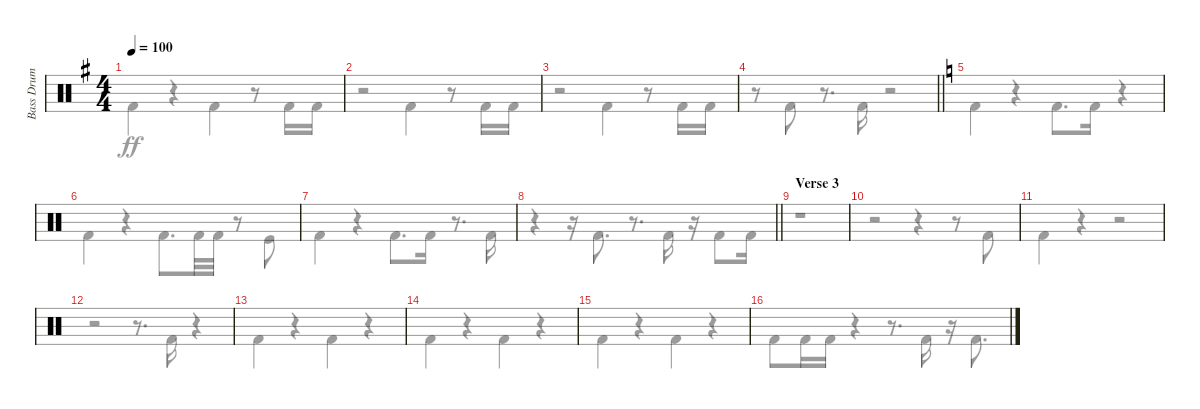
\track ("Bass Drum" "Bass Drum") {instrument percussion}
\staff {score}
\articulation defaults
\voice
\ts (4 4)
\tempo 100
\clef neutral
\ks eminor
|
|
|
\barLineRight lightlight
|
\ks c
|
|
|
\barLineRight lightlight
|
\section ("" "Verse 3")
\ks aminor
|
|
|
|
|
|
|
\voice
\clef neutral
\ks eminor "Kick (hit) 2".4{dy ff}
r.4 "Kick (hit) 2".4 r.8 "Kick (hit) 2".16 "Kick (hit) 2".16 |
r.2 "Kick (hit) 2".4 r.8 "Kick (hit) 2".16 "Kick (hit) 2".16 |
r.2 "Kick (hit) 2".4 r.8 "Kick (hit) 2".16 "Kick (hit) 2".16 |
\barLineRight lightlight
r.8 "Kick (hit) 2".8 r.8{d} "Kick (hit) 2".16 r.2 |
\ks c "Kick (hit) 2".4
r.4 "Kick (hit) 2".8{d} "Kick (hit) 2".16 r.4 |
"Kick (hit) 2".4 r.4 "Kick (hit) 2".8{d} "Kick (hit) 2".32 "Kick (hit) 2".32 r.8 "Kick (hit)".8 |
"Kick (hit) 2".4 r.4 "Kick (hit) 2".8{d} "Kick (hit) 2".16 r.8{d} "Kick (hit) 2".16 |
\barLineRight lightlight
r.4 r.16 "Kick (hit) 2".8{d} r.8{d} "Kick (hit) 2".16 r.16 "Kick (hit) 2".8 "Kick (hit) 2".16 |
\ks aminor
r.1 |
r.2 r.4 r.8 "Kick (hit) 2".8 |
"Kick (hit) 2".4 r.4 r.2 |
r.2 r.8{d} "Kick (hit) 2".16 r.4 |
"Kick (hit) 2".4 r.4 "Kick (hit) 2".4 r.4 |
"Kick (hit) 2".4 r.4 "Kick (hit) 2".4 r.4 |
"Kick (hit) 2".4 r.4 "Kick (hit) 2".4 r.4 |
"Kick (hit) 2".8 "Kick (hit) 2".16 "Kick (hit) 2".16 r.4 r.8{d} "Kick (hit) 2".16 r.16 "Kick (hit) 2".8{d}
